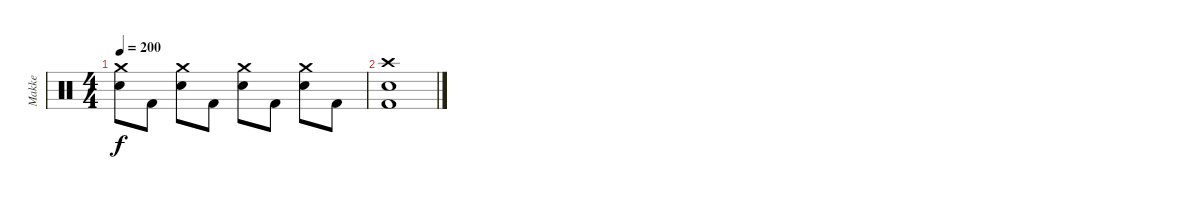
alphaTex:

\track ("Makke" "Makke") {instrument percussion}
\staff {score}
\articulation defaults
\ts (4 4)
\tempo 200
\clef neutral
\ks c
("Crash medium (hit)" "Electric Snare (hit)").8{dy f} "Kick (hit) 2".8 ("Crash medium (hit)" "Electric Snare (hit)").8 "Kick (hit) 2".8 ("Crash medium (hit)" "Electric Snare (hit)").8 "Kick (hit) 2".8 ("Crash medium (hit)" "Electric Snare (hit)").8 "Kick (hit) 2".8 |
("Crash high (hit)" "Electric Snare (hit)" "Kick (hit) 2").1
